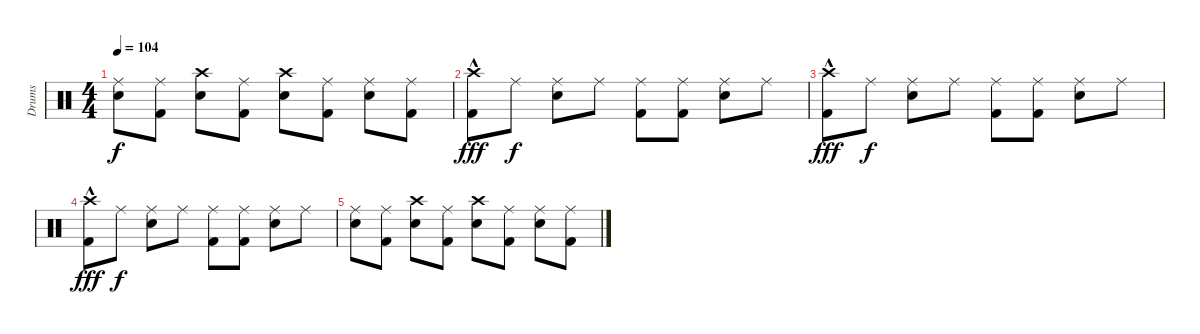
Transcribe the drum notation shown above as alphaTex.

\track ("Drums" "Drums") {instrument percussion}
\staff {score}
\articulation defaults
\ts (4 4)
\tempo 104
\clef neutral
\ks c
("Snare (hit) 2" "Ride (middle)").8{dy f} ("Ride (middle)" "Kick (hit) 2").8 ("Crash high (hit)" "Snare (hit) 2").8 ("Ride (middle)" "Kick (hit) 2").8 ("Crash high (hit)" "Snare (hit) 2").8 ("Ride (middle)" "Kick (hit) 2").8 ("Snare (hit) 2" "Ride (middle)").8 ("Ride (middle)" "Kick (hit) 2").8 |
("Crash high (hit)"{hac} "Kick (hit) 2").8{dy fff} "Ride (middle)".8{dy f} ("Ride (middle)" "Snare (hit) 2").8 "Ride (middle)".8 ("Ride (middle)" "Kick (hit) 2").8 ("Ride (middle)" "Kick (hit) 2").8 ("Ride (middle)" "Snare (hit) 2").8 "Ride (middle)".8 |
("Crash high (hit)"{hac} "Kick (hit) 2").8{dy fff} "Ride (middle)".8{dy f} ("Ride (middle)" "Snare (hit) 2").8 "Ride (middle)".8 ("Ride (middle)" "Kick (hit) 2").8 ("Ride (middle)" "Kick (hit) 2").8 ("Ride (middle)" "Snare (hit) 2").8 "Ride (middle)".8 |
("Crash high (hit)"{hac} "Kick (hit) 2").8{dy fff} "Ride (middle)".8{dy f} ("Ride (middle)" "Snare (hit) 2").8 "Ride (middle)".8 ("Ride (middle)" "Kick (hit) 2").8 ("Ride (middle)" "Kick (hit) 2").8 ("Ride (middle)" "Snare (hit) 2").8 "Ride (middle)".8 |
("Snare (hit) 2" "Ride (middle)").8 ("Ride (middle)" "Kick (hit) 2").8 ("Crash high (hit)" "Snare (hit) 2").8 ("Ride (middle)" "Kick (hit) 2").8 ("Crash high (hit)" "Snare (hit) 2").8 ("Ride (middle)" "Kick (hit) 2").8 ("Snare (hit) 2" "Ride (middle)").8 ("Ride (middle)" "Kick (hit) 2").8
